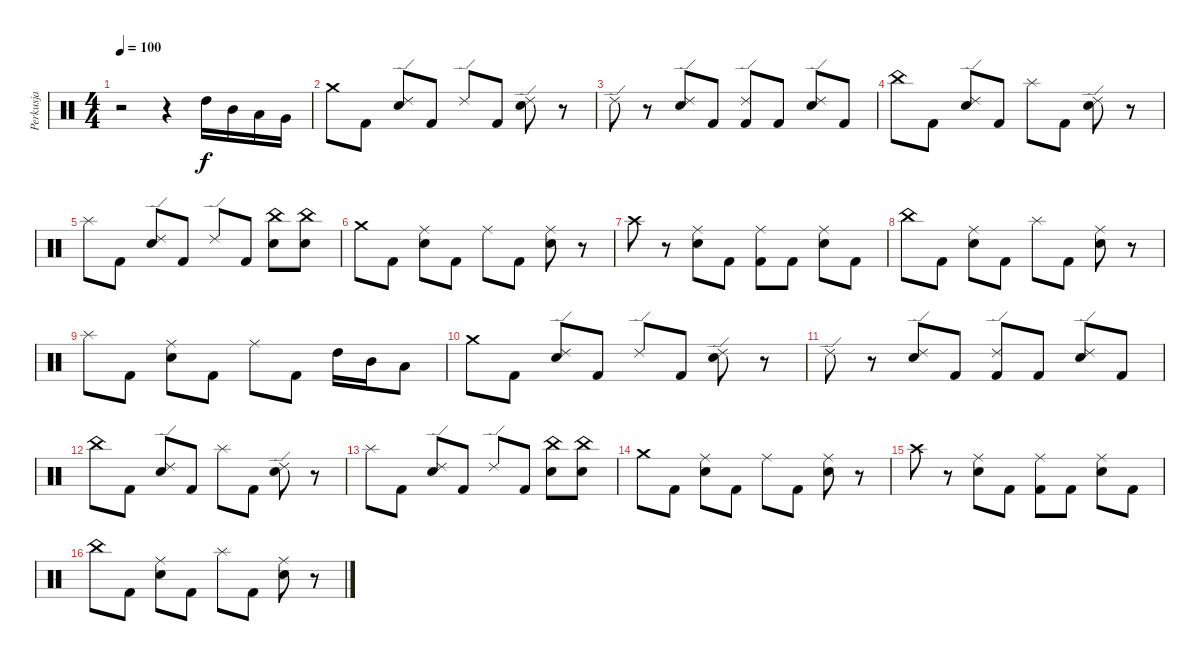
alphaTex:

\track ("Perkusja" "Perkusja") {instrument percussion}
\staff {score}
\articulation defaults
\ts (4 4)
\tempo 100
\clef neutral
\ks c
r.2{dy f} r.4 "High Tom (hit)".16 "Mid Tom (hit)".16 "Low Tom (hit)".16 "Very Low Tom (hit)".16 |
"Crash medium (hit)".8 "Kick (hit) 2".8 ("Ride (edge) 2" "Snare (hit) 2").8 "Kick (hit) 2".8 "Ride (edge) 2".8 "Kick (hit) 2".8 ("Ride (edge) 2" "Snare (hit) 2").8 r.8 |
"Ride (edge) 2".8 r.8 ("Ride (edge) 2" "Snare (hit) 2").8 "Kick (hit) 2".8 ("Ride (edge) 2" "Kick (hit) 2").8 "Kick (hit) 2".8 ("Ride (edge) 2" "Snare (hit) 2").8 "Kick (hit) 2".8 |
"China (hit)".8 "Kick (hit) 2".8 ("Ride (edge) 2" "Snare (hit) 2").8 "Kick (hit) 2".8 "Splash (hit)".8 "Kick (hit) 2".8 ("Ride (edge) 2" "Snare (hit) 2").8 r.8 |
"Splash (hit)".8 "Kick (hit) 2".8 ("Ride (edge) 2" "Snare (hit) 2").8 "Kick (hit) 2".8 "Ride (edge) 2".8 "Kick (hit) 2".8 ("China (hit)" "Snare (hit) 2").8 ("China (hit)" "Snare (hit) 2").8 |
"Crash medium (hit)".8 "Kick (hit) 2".8 ("Ride (middle)" "Snare (hit) 2").8 "Kick (hit) 2".8 "Ride (middle)".8 "Kick (hit) 2".8 ("Ride (middle)" "Snare (hit) 2").8 r.8 |
"Crash high (hit)".8 r.8 ("Ride (middle)" "Snare (hit) 2").8 "Kick (hit) 2".8 ("Ride (middle)" "Kick (hit) 2").8 "Kick (hit) 2".8 ("Ride (middle)" "Snare (hit) 2").8 "Kick (hit) 2".8 |
"China (hit)".8 "Kick (hit) 2".8 ("Ride (middle)" "Snare (hit) 2").8 "Kick (hit) 2".8 "Splash (hit)".8 "Kick (hit) 2".8 ("Ride (middle)" "Snare (hit) 2").8 r.8 |
"Splash (hit)".8 "Kick (hit) 2".8 ("Ride (middle)" "Snare (hit) 2").8 "Kick (hit) 2".8 "Ride (middle)".8 "Kick (hit) 2".8 "High Tom (hit)".16 "Mid Tom (hit)".16 "Low Tom (hit)".8 |
"Crash medium (hit)".8 "Kick (hit) 2".8 ("Ride (edge) 2" "Snare (hit) 2").8 "Kick (hit) 2".8 "Ride (edge) 2".8 "Kick (hit) 2".8 ("Ride (edge) 2" "Snare (hit) 2").8 r.8 |
"Ride (edge) 2".8 r.8 ("Ride (edge) 2" "Snare (hit) 2").8 "Kick (hit) 2".8 ("Ride (edge) 2" "Kick (hit) 2").8 "Kick (hit) 2".8 ("Ride (edge) 2" "Snare (hit) 2").8 "Kick (hit) 2".8 |
"China (hit)".8 "Kick (hit) 2".8 ("Ride (edge) 2" "Snare (hit) 2").8 "Kick (hit) 2".8 "Splash (hit)".8 "Kick (hit) 2".8 ("Ride (edge) 2" "Snare (hit) 2").8 r.8 |
"Splash (hit)".8 "Kick (hit) 2".8 ("Ride (edge) 2" "Snare (hit) 2").8 "Kick (hit) 2".8 "Ride (edge) 2".8 "Kick (hit) 2".8 ("China (hit)" "Snare (hit) 2").8 ("China (hit)" "Snare (hit) 2").8 |
"Crash medium (hit)".8 "Kick (hit) 2".8 ("Ride (middle)" "Snare (hit) 2").8 "Kick (hit) 2".8 "Ride (middle)".8 "Kick (hit) 2".8 ("Ride (middle)" "Snare (hit) 2").8 r.8 |
"Crash high (hit)".8 r.8 ("Ride (middle)" "Snare (hit) 2").8 "Kick (hit) 2".8 ("Ride (middle)" "Kick (hit) 2").8 "Kick (hit) 2".8 ("Ride (middle)" "Snare (hit) 2").8 "Kick (hit) 2".8 |
"China (hit)".8 "Kick (hit) 2".8 ("Ride (middle)" "Snare (hit) 2").8 "Kick (hit) 2".8 "Splash (hit)".8 "Kick (hit) 2".8 ("Ride (middle)" "Snare (hit) 2").8 r.8
